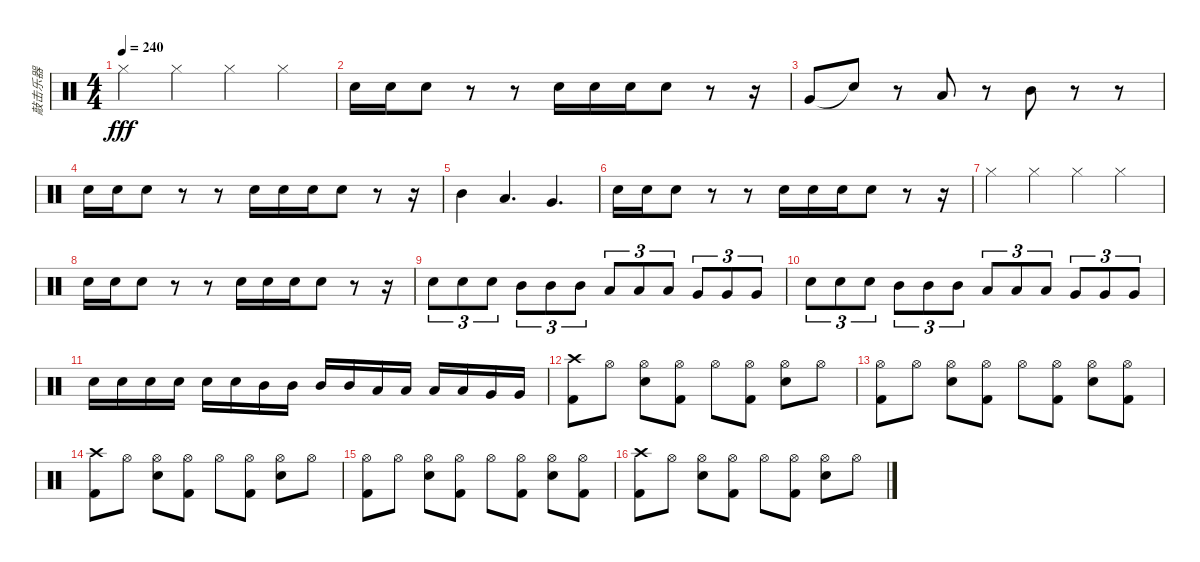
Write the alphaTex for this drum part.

\track ("敲击乐器" "敲击乐器") {instrument percussion}
\staff {score}
\articulation defaults
\ts (4 4)
\tempo 240
\clef neutral
\ks c "Hi-Hat (closed)".4{dy fff} "Hi-Hat (closed)".4 "Hi-Hat (closed)".4 "Hi-Hat (closed)".4
|
"Snare (hit) 2".16 "Snare (hit) 2".16 "Snare (hit) 2".8 r.8 r.8 "Snare (hit) 2".16 "Snare (hit) 2".16 "Snare (hit) 2".16 "Snare (hit) 2".8 r.8 r.16 |
"Very Low Tom (hit)".8 "Snare (hit)"{t}.8 r.8 "Low Tom (hit)".8 r.8 "Mid Tom (hit)".8 r.8 r.8 |
"Snare (hit) 2".16 "Snare (hit) 2".16 "Snare (hit) 2".8 r.8 r.8 "Snare (hit) 2".16 "Snare (hit) 2".16 "Snare (hit) 2".16 "Snare (hit) 2".8 r.8 r.16 |
"Mid Tom (hit)".4 "Low Tom (hit)".4{d} "Very Low Tom (hit)".4{d} |
"Snare (hit) 2".16 "Snare (hit) 2".16 "Snare (hit) 2".8 r.8 r.8 "Snare (hit) 2".16 "Snare (hit) 2".16 "Snare (hit) 2".16 "Snare (hit) 2".8 r.8 r.16 |
"Hi-Hat (closed)".4 "Hi-Hat (closed)".4 "Hi-Hat (closed)".4 "Hi-Hat (closed)".4 |
"Snare (hit) 2".16 "Snare (hit) 2".16 "Snare (hit) 2".8 r.8 r.8 "Snare (hit) 2".16 "Snare (hit) 2".16 "Snare (hit) 2".16 "Snare (hit) 2".8 r.8 r.16 |
"Snare (hit) 2".8{tu (3 2)} "Snare (hit) 2".8{tu (3 2)} "Snare (hit) 2".8{tu (3 2)} "Mid Tom (hit)".8{tu (3 2)} "Mid Tom (hit)".8{tu (3 2)} "Mid Tom (hit)".8{tu (3 2)} "Low Tom (hit)".8{tu (3 2)} "Low Tom (hit)".8{tu (3 2)} "Low Tom (hit)".8{tu (3 2)} "Very Low Tom (hit)".8{tu (3 2)} "Very Low Tom (hit)".8{tu (3 2)} "Very Low Tom (hit)".8{tu (3 2)} |
"Snare (hit) 2".8{tu (3 2)} "Snare (hit) 2".8{tu (3 2)} "Snare (hit) 2".8{tu (3 2)} "Mid Tom (hit)".8{tu (3 2)} "Mid Tom (hit)".8{tu (3 2)} "Mid Tom (hit)".8{tu (3 2)} "Low Tom (hit)".8{tu (3 2)} "Low Tom (hit)".8{tu (3 2)} "Low Tom (hit)".8{tu (3 2)} "Very Low Tom (hit)".8{tu (3 2)} "Very Low Tom (hit)".8{tu (3 2)} "Very Low Tom (hit)".8{tu (3 2)} |
"Snare (hit) 2".16 "Snare (hit) 2".16 "Snare (hit) 2".16 "Snare (hit) 2".16 "Snare (hit) 2".16 "Snare (hit) 2".16 "Mid Tom (hit)".16 "Mid Tom (hit)".16 "Mid Tom (hit)".16 "Mid Tom (hit)".16 "Low Tom (hit)".16 "Low Tom (hit)".16 "Low Tom (hit)".16 "Low Tom (hit)".16 "Very Low Tom (hit)".16 "Very Low Tom (hit)".16 |
("Crash high (hit)" "Kick (hit) 2").8 "Hi-Hat (open)".8 ("Hi-Hat (open)" "Snare (hit) 2").8 ("Hi-Hat (open)" "Kick (hit) 2").8 "Hi-Hat (open)".8 ("Hi-Hat (open)" "Kick (hit) 2").8 ("Hi-Hat (open)" "Snare (hit) 2").8 "Hi-Hat (open)".8 |
("Hi-Hat (open)" "Kick (hit) 2").8 "Hi-Hat (open)".8 ("Hi-Hat (open)" "Snare (hit) 2").8 ("Hi-Hat (open)" "Kick (hit) 2").8 "Hi-Hat (open)".8 ("Hi-Hat (open)" "Kick (hit) 2").8 ("Hi-Hat (open)" "Snare (hit) 2").8 ("Hi-Hat (open)" "Kick (hit) 2").8 |
("Crash high (hit)" "Kick (hit) 2").8 "Hi-Hat (open)".8 ("Hi-Hat (open)" "Snare (hit) 2").8 ("Hi-Hat (open)" "Kick (hit) 2").8 "Hi-Hat (open)".8 ("Hi-Hat (open)" "Kick (hit) 2").8 ("Hi-Hat (open)" "Snare (hit) 2").8 "Hi-Hat (open)".8 |
("Hi-Hat (open)" "Kick (hit) 2").8 "Hi-Hat (open)".8 ("Hi-Hat (open)" "Snare (hit) 2").8 ("Hi-Hat (open)" "Kick (hit) 2").8 "Hi-Hat (open)".8 ("Hi-Hat (open)" "Kick (hit) 2").8 ("Hi-Hat (open)" "Snare (hit) 2").8 ("Hi-Hat (open)" "Kick (hit) 2").8 |
("Crash high (hit)" "Kick (hit) 2").8 "Hi-Hat (open)".8 ("Hi-Hat (open)" "Snare (hit) 2").8 ("Hi-Hat (open)" "Kick (hit) 2").8 "Hi-Hat (open)".8 ("Hi-Hat (open)" "Kick (hit) 2").8 ("Hi-Hat (open)" "Snare (hit) 2").8 "Hi-Hat (open)".8
